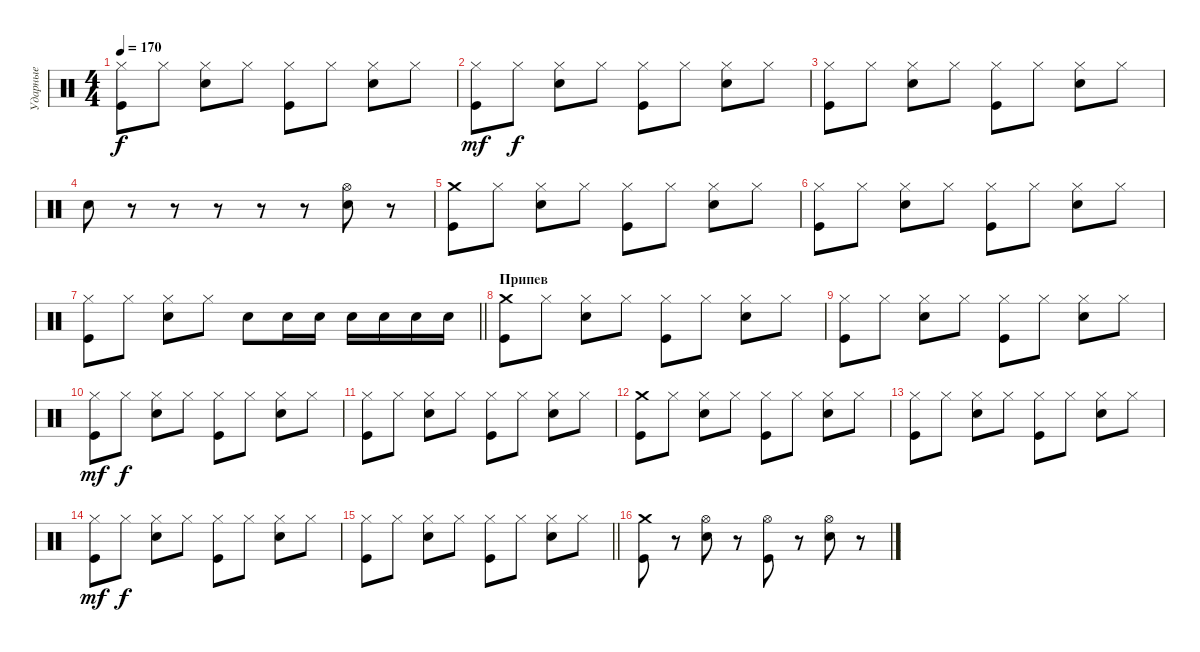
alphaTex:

\track ("Ударные" "Ударные") {instrument percussion}
\staff {score}
\articulation defaults
\ts (4 4)
\tempo 170
\clef neutral
\ks c
("Hi-Hat (closed)" "Kick (hit)").8{dy f} "Hi-Hat (closed)".8 ("Hi-Hat (closed)" "Electric Snare (hit)").8 "Hi-Hat (closed)".8 ("Hi-Hat (closed)" "Kick (hit)").8 "Hi-Hat (closed)".8 ("Hi-Hat (closed)" "Electric Snare (hit)").8 "Hi-Hat (closed)".8 |
("Hi-Hat (closed)" "Kick (hit)").8{dy mf} "Hi-Hat (closed)".8{dy f} ("Hi-Hat (closed)" "Electric Snare (hit)").8 "Hi-Hat (closed)".8 ("Hi-Hat (closed)" "Kick (hit)").8 "Hi-Hat (closed)".8 ("Hi-Hat (closed)" "Electric Snare (hit)").8 "Hi-Hat (closed)".8 |
("Hi-Hat (closed)" "Kick (hit)").8 "Hi-Hat (closed)".8 ("Hi-Hat (closed)" "Electric Snare (hit)").8 "Hi-Hat (closed)".8 ("Hi-Hat (closed)" "Kick (hit)").8 "Hi-Hat (closed)".8 ("Hi-Hat (closed)" "Electric Snare (hit)").8 "Hi-Hat (closed)".8 |
"Electric Snare (hit)".8 r.8 r.8 r.8 r.8 r.8 ("Hi-Hat (open)" "Electric Snare (hit)").8 r.8 |
("Crash medium (hit)" "Kick (hit)").8 "Hi-Hat (closed)".8 ("Hi-Hat (closed)" "Electric Snare (hit)").8 "Hi-Hat (closed)".8 ("Hi-Hat (closed)" "Kick (hit)").8 "Hi-Hat (closed)".8 ("Hi-Hat (closed)" "Electric Snare (hit)").8 "Hi-Hat (closed)".8 |
("Hi-Hat (closed)" "Kick (hit)").8 "Hi-Hat (closed)".8 ("Hi-Hat (closed)" "Electric Snare (hit)").8 "Hi-Hat (closed)".8 ("Hi-Hat (closed)" "Kick (hit)").8 "Hi-Hat (closed)".8 ("Hi-Hat (closed)" "Electric Snare (hit)").8 "Hi-Hat (closed)".8 |
\barLineRight lightlight
("Hi-Hat (closed)" "Kick (hit)").8 "Hi-Hat (closed)".8 ("Hi-Hat (closed)" "Electric Snare (hit)").8 "Hi-Hat (closed)".8 "Electric Snare (hit)".8 "Electric Snare (hit)".16 "Electric Snare (hit)".16 "Electric Snare (hit)".16 "Electric Snare (hit)".16 "Electric Snare (hit)".16 "Electric Snare (hit)".16 |
\section ("" "Припев")
("Crash medium (hit)" "Kick (hit)").8 "Hi-Hat (closed)".8 ("Hi-Hat (closed)" "Electric Snare (hit)").8 "Hi-Hat (closed)".8 ("Hi-Hat (closed)" "Kick (hit)").8 "Hi-Hat (closed)".8 ("Hi-Hat (closed)" "Electric Snare (hit)").8 "Hi-Hat (closed)".8 |
("Hi-Hat (closed)" "Kick (hit)").8 "Hi-Hat (closed)".8 ("Hi-Hat (closed)" "Electric Snare (hit)").8 "Hi-Hat (closed)".8 ("Hi-Hat (closed)" "Kick (hit)").8 "Hi-Hat (closed)".8 ("Hi-Hat (closed)" "Electric Snare (hit)").8 "Hi-Hat (closed)".8 |
("Hi-Hat (closed)" "Kick (hit)").8{dy mf} "Hi-Hat (closed)".8{dy f} ("Hi-Hat (closed)" "Electric Snare (hit)").8 "Hi-Hat (closed)".8 ("Hi-Hat (closed)" "Kick (hit)").8 "Hi-Hat (closed)".8 ("Hi-Hat (closed)" "Electric Snare (hit)").8 "Hi-Hat (closed)".8 |
("Hi-Hat (closed)" "Kick (hit)").8 "Hi-Hat (closed)".8 ("Hi-Hat (closed)" "Electric Snare (hit)").8 "Hi-Hat (closed)".8 ("Hi-Hat (closed)" "Kick (hit)").8 "Hi-Hat (closed)".8 ("Hi-Hat (closed)" "Electric Snare (hit)").8 "Hi-Hat (closed)".8 |
("Crash medium (hit)" "Kick (hit)").8 "Hi-Hat (closed)".8 ("Hi-Hat (closed)" "Electric Snare (hit)").8 "Hi-Hat (closed)".8 ("Hi-Hat (closed)" "Kick (hit)").8 "Hi-Hat (closed)".8 ("Hi-Hat (closed)" "Electric Snare (hit)").8 "Hi-Hat (closed)".8 |
("Hi-Hat (closed)" "Kick (hit)").8 "Hi-Hat (closed)".8 ("Hi-Hat (closed)" "Electric Snare (hit)").8 "Hi-Hat (closed)".8 ("Hi-Hat (closed)" "Kick (hit)").8 "Hi-Hat (closed)".8 ("Hi-Hat (closed)" "Electric Snare (hit)").8 "Hi-Hat (closed)".8 |
("Hi-Hat (closed)" "Kick (hit)").8{dy mf} "Hi-Hat (closed)".8{dy f} ("Hi-Hat (closed)" "Electric Snare (hit)").8 "Hi-Hat (closed)".8 ("Hi-Hat (closed)" "Kick (hit)").8 "Hi-Hat (closed)".8 ("Hi-Hat (closed)" "Electric Snare (hit)").8 "Hi-Hat (closed)".8 |
\barLineRight lightlight
("Hi-Hat (closed)" "Kick (hit)").8 "Hi-Hat (closed)".8 ("Hi-Hat (closed)" "Electric Snare (hit)").8 "Hi-Hat (closed)".8 ("Hi-Hat (closed)" "Kick (hit)").8 "Hi-Hat (closed)".8 ("Hi-Hat (closed)" "Electric Snare (hit)").8 "Hi-Hat (closed)".8 |
\section ("" " ")
("Crash medium (hit)" "Kick (hit)").8 r.8 ("Hi-Hat (open)" "Electric Snare (hit)").8 r.8 ("Hi-Hat (open)" "Kick (hit)").8 r.8 ("Hi-Hat (open)" "Electric Snare (hit)").8 r.8
